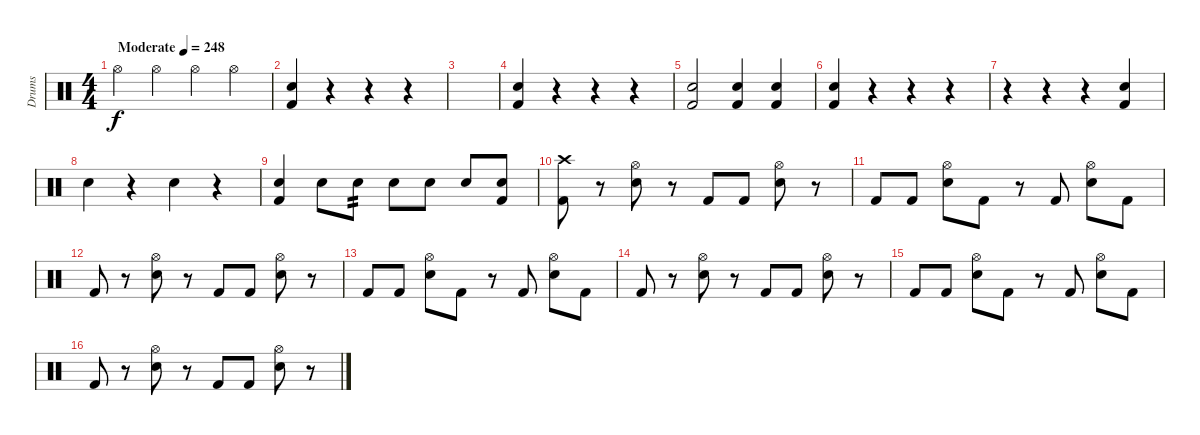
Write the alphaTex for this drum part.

\track ("Drums" "Drums") {instrument percussion}
\staff {score}
\articulation defaults
\ts (4 4)
\tempo (248 "Moderate")
\clef neutral
\ks c "Hi-Hat (open)".4{dy f} "Hi-Hat (open)".4 "Hi-Hat (open)".4 "Hi-Hat (open)".4
|
("Electric Snare (hit)" "Kick (hit) 2").4 r.4 r.4 r.4 |
|
("Electric Snare (hit)" "Kick (hit) 2").4 r.4 r.4 r.4 |
("Electric Snare (hit)" "Kick (hit) 2").2 ("Electric Snare (hit)" "Kick (hit) 2").4 ("Electric Snare (hit)" "Kick (hit) 2").4 |
("Electric Snare (hit)" "Kick (hit) 2").4 r.4 r.4 r.4 |
r.4 r.4 r.4 ("Electric Snare (hit)" "Kick (hit) 2").4 |
"Electric Snare (hit)".4 r.4 "Electric Snare (hit)".4 r.4 |
("Electric Snare (hit)" "Kick (hit) 2").4 "Electric Snare (hit)".8 "Electric Snare (hit)".8{tp 2} "Electric Snare (hit)".8 "Electric Snare (hit)".8 "Electric Snare (hit)".8 ("Electric Snare (hit)" "Kick (hit) 2").8 |
("Kick (hit) 2" "Crash high (hit)").8 r.8 ("Electric Snare (hit)" "Hi-Hat (open)").8 r.8 "Kick (hit) 2".8 "Kick (hit) 2".8 ("Electric Snare (hit)" "Hi-Hat (open)").8 r.8 |
"Kick (hit) 2".8 "Kick (hit) 2".8 ("Electric Snare (hit)" "Hi-Hat (open)").8 "Kick (hit) 2".8 r.8 "Kick (hit) 2".8 ("Electric Snare (hit)" "Hi-Hat (open)").8 "Kick (hit) 2".8 |
"Kick (hit) 2".8 r.8 ("Electric Snare (hit)" "Hi-Hat (open)").8 r.8 "Kick (hit) 2".8 "Kick (hit) 2".8 ("Electric Snare (hit)" "Hi-Hat (open)").8 r.8 |
"Kick (hit) 2".8 "Kick (hit) 2".8 ("Electric Snare (hit)" "Hi-Hat (open)").8 "Kick (hit) 2".8 r.8 "Kick (hit) 2".8 ("Electric Snare (hit)" "Hi-Hat (open)").8 "Kick (hit) 2".8 |
"Kick (hit) 2".8 r.8 ("Electric Snare (hit)" "Hi-Hat (open)").8 r.8 "Kick (hit) 2".8 "Kick (hit) 2".8 ("Electric Snare (hit)" "Hi-Hat (open)").8 r.8 |
"Kick (hit) 2".8 "Kick (hit) 2".8 ("Electric Snare (hit)" "Hi-Hat (open)").8 "Kick (hit) 2".8 r.8 "Kick (hit) 2".8 ("Electric Snare (hit)" "Hi-Hat (open)").8 "Kick (hit) 2".8 |
"Kick (hit) 2".8 r.8 ("Electric Snare (hit)" "Hi-Hat (open)").8 r.8 "Kick (hit) 2".8 "Kick (hit) 2".8 ("Electric Snare (hit)" "Hi-Hat (open)").8 r.8
